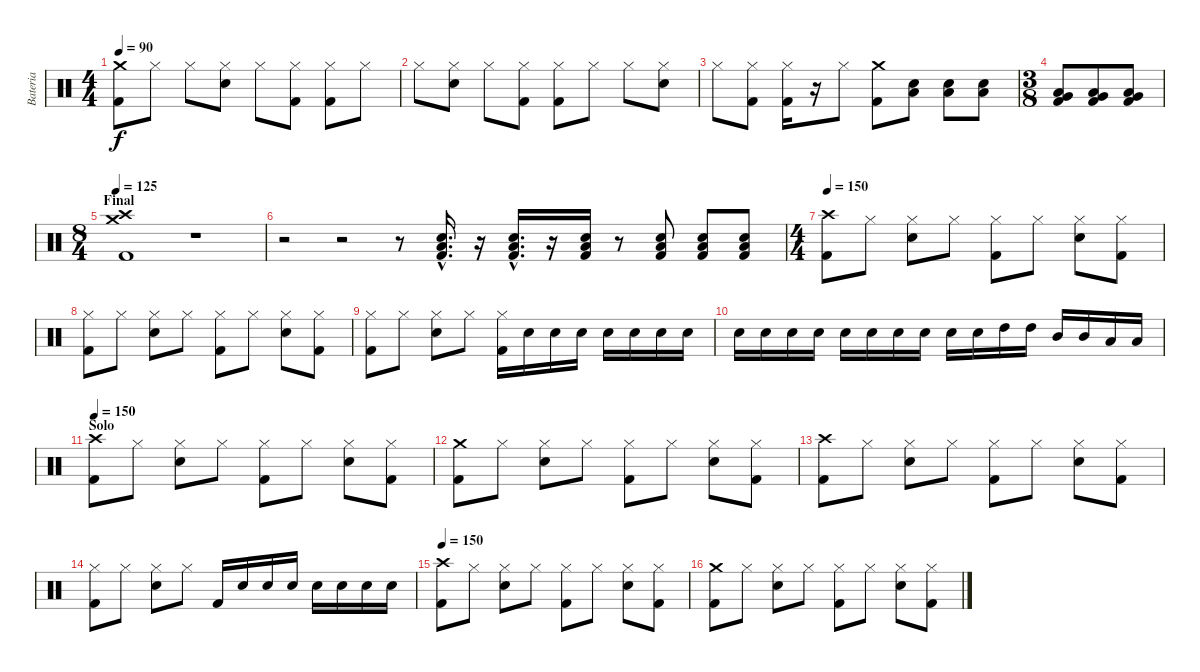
\track ("Bateria" "Bateria") {instrument percussion}
\staff {score}
\articulation defaults
\ts (4 4)
\tempo 90
\clef neutral
\ks c
("Crash medium (hit)" "Kick (hit) 2").8{dy f} "Hi-Hat (closed)".8 "Hi-Hat (closed)".8 ("Hi-Hat (closed)" "Snare (hit) 2").8 "Hi-Hat (closed)".8 ("Hi-Hat (closed)" "Kick (hit) 2").8 ("Hi-Hat (closed)" "Kick (hit) 2").8 "Hi-Hat (closed)".8 |
"Hi-Hat (closed)".8 ("Hi-Hat (closed)" "Snare (hit) 2").8 "Hi-Hat (closed)".8 ("Hi-Hat (closed)" "Kick (hit) 2").8 ("Hi-Hat (closed)" "Kick (hit) 2").8 "Hi-Hat (closed)".8 "Hi-Hat (closed)".8 ("Hi-Hat (closed)" "Snare (hit) 2").8 |
"Hi-Hat (closed)".8 ("Hi-Hat (closed)" "Kick (hit) 2").8 ("Hi-Hat (closed)" "Kick (hit) 2").16 r.16 "Hi-Hat (closed)".8 ("Crash medium (hit)" "Kick (hit) 2").8 ("Low Tom (hit)" "Snare (hit) 2").8 ("Low Tom (hit)" "Snare (hit) 2").8 ("Low Tom (hit)" "Snare (hit) 2").8 |
\ts (3 8)
("Low Tom (hit)" "Very Low Tom (hit)" "Kick (hit) 2").8 ("Low Tom (hit)" "Very Low Tom (hit)" "Kick (hit) 2").8 ("Low Tom (hit)" "Very Low Tom (hit)" "Kick (hit) 2").8 |
\ts (8 4)
\section ("" "Final")
\tempo 125
("Crash high (hit)" "Crash medium (hit)" "Kick (hit) 2").1 r.1 |
r.2 r.2 r.8 ("Kick (hit) 2"{hac} "Low Tom (hit)"{hac} "Snare (hit) 2"{hac}).16{d} r.16 ("Kick (hit) 2"{hac} "Low Tom (hit)"{hac} "Snare (hit) 2"{hac}).16{d} r.16 ("Kick (hit) 2" "Low Tom (hit)" "Snare (hit) 2").16 r.8 ("Kick (hit) 2" "Low Tom (hit)" "Snare (hit) 2").8 ("Kick (hit) 2" "Low Tom (hit)" "Snare (hit) 2").8 ("Kick (hit) 2" "Low Tom (hit)" "Snare (hit) 2").8 |
\ts (4 4)
\tempo 150
("Crash high (hit)" "Kick (hit) 2").8 "Hi-Hat (closed)".8 ("Hi-Hat (closed)" "Snare (hit) 2").8 "Hi-Hat (closed)".8 ("Hi-Hat (closed)" "Kick (hit) 2").8 "Hi-Hat (closed)".8 ("Hi-Hat (closed)" "Snare (hit) 2").8 ("Hi-Hat (closed)" "Kick (hit) 2").8 |
("Hi-Hat (closed)" "Kick (hit) 2").8 "Hi-Hat (closed)".8 ("Hi-Hat (closed)" "Snare (hit) 2").8 "Hi-Hat (closed)".8 ("Hi-Hat (closed)" "Kick (hit) 2").8 "Hi-Hat (closed)".8 ("Hi-Hat (closed)" "Snare (hit) 2").8 ("Hi-Hat (closed)" "Kick (hit) 2").8 |
("Hi-Hat (closed)" "Kick (hit) 2").8 "Hi-Hat (closed)".8 ("Hi-Hat (closed)" "Snare (hit) 2").8 "Hi-Hat (closed)".8 ("Hi-Hat (closed)" "Kick (hit) 2").16 "Snare (hit) 2".16 "Snare (hit) 2".16 "Snare (hit) 2".16 "Snare (hit) 2".16 "Snare (hit) 2".16 "Snare (hit) 2".16 "Snare (hit) 2".16 |
"Snare (hit) 2".16 "Snare (hit) 2".16 "Snare (hit) 2".16 "Snare (hit) 2".16 "Snare (hit) 2".16 "Snare (hit) 2".16 "Snare (hit) 2".16 "Snare (hit) 2".16 "Snare (hit) 2".16 "Snare (hit) 2".16 "High Tom (hit)".16 "High Tom (hit)".16 "Mid Tom (hit)".16 "Mid Tom (hit)".16 "Low Tom (hit)".16 "Low Tom (hit)".16 |
\section ("" "Solo")
\tempo 150
("Crash high (hit)" "Kick (hit) 2").8 "Hi-Hat (closed)".8 ("Hi-Hat (closed)" "Snare (hit) 2").8 "Hi-Hat (closed)".8 ("Hi-Hat (closed)" "Kick (hit) 2").8 "Hi-Hat (closed)".8 ("Hi-Hat (closed)" "Snare (hit) 2").8 ("Hi-Hat (closed)" "Kick (hit) 2").8 |
("Crash medium (hit)" "Kick (hit) 2").8 "Hi-Hat (closed)".8 ("Hi-Hat (closed)" "Snare (hit) 2").8 "Hi-Hat (closed)".8 ("Hi-Hat (closed)" "Kick (hit) 2").8 "Hi-Hat (closed)".8 ("Hi-Hat (closed)" "Snare (hit) 2").8 ("Hi-Hat (closed)" "Kick (hit) 2").8 |
("Crash high (hit)" "Kick (hit) 2").8 "Hi-Hat (closed)".8 ("Hi-Hat (closed)" "Snare (hit) 2").8 "Hi-Hat (closed)".8 ("Hi-Hat (closed)" "Kick (hit) 2").8 "Hi-Hat (closed)".8 ("Hi-Hat (closed)" "Snare (hit) 2").8 ("Hi-Hat (closed)" "Kick (hit) 2").8 |
("Hi-Hat (closed)" "Kick (hit) 2").8 "Hi-Hat (closed)".8 ("Hi-Hat (closed)" "Snare (hit) 2").8 "Hi-Hat (closed)".8 "Kick (hit) 2".16 "Snare (hit) 2".16 "Snare (hit) 2".16 "Snare (hit) 2".16 "Snare (hit) 2".16 "Snare (hit) 2".16 "Snare (hit) 2".16 "Snare (hit) 2".16 |
\tempo 150
("Crash high (hit)" "Kick (hit) 2").8 "Hi-Hat (closed)".8 ("Hi-Hat (closed)" "Snare (hit) 2").8 "Hi-Hat (closed)".8 ("Hi-Hat (closed)" "Kick (hit) 2").8 "Hi-Hat (closed)".8 ("Hi-Hat (closed)" "Snare (hit) 2").8 ("Hi-Hat (closed)" "Kick (hit) 2").8 |
("Crash medium (hit)" "Kick (hit) 2").8 "Hi-Hat (closed)".8 ("Hi-Hat (closed)" "Snare (hit) 2").8 "Hi-Hat (closed)".8 ("Hi-Hat (closed)" "Kick (hit) 2").8 "Hi-Hat (closed)".8 ("Hi-Hat (closed)" "Snare (hit) 2").8 ("Hi-Hat (closed)" "Kick (hit) 2").8
